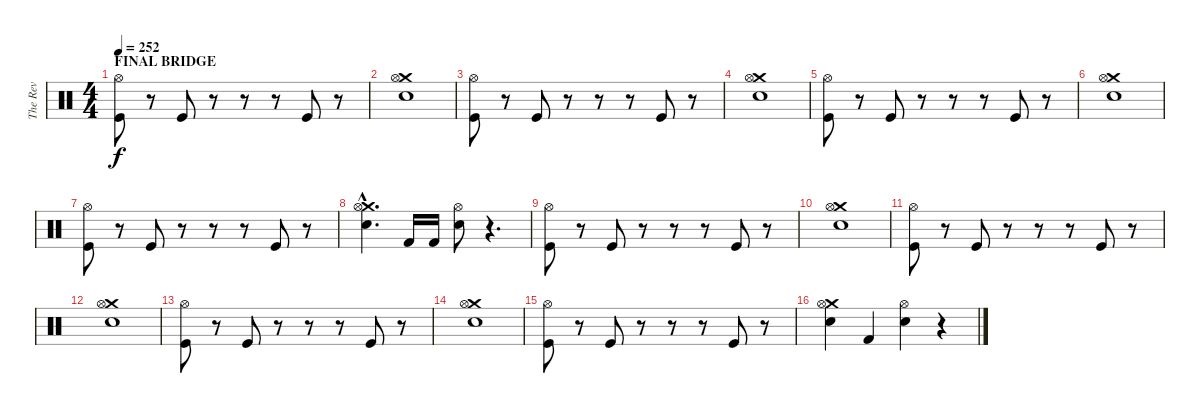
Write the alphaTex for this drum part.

\track ("The Rev" "The Rev") {instrument percussion}
\staff {score}
\articulation defaults
\ts (4 4)
\section ("" "FINAL BRIDGE")
\tempo 252
\clef neutral
\ks c
("Hi-Hat (open)" "Kick (hit)").8{dy f} r.8 "Kick (hit)".8 r.8 r.8 r.8 "Kick (hit)".8 r.8 |
("Crash medium (hit)" "Hi-Hat (open)" "Electric Snare (hit)").1 |
("Hi-Hat (open)" "Kick (hit)").8 r.8 "Kick (hit)".8 r.8 r.8 r.8 "Kick (hit)".8 r.8 |
("Crash medium (hit)" "Hi-Hat (open)" "Electric Snare (hit)").1 |
("Hi-Hat (open)" "Kick (hit)").8 r.8 "Kick (hit)".8 r.8 r.8 r.8 "Kick (hit)".8 r.8 |
("Crash medium (hit)" "Hi-Hat (open)" "Electric Snare (hit)").1 |
("Hi-Hat (open)" "Kick (hit)").8 r.8 "Kick (hit)".8 r.8 r.8 r.8 "Kick (hit)".8 r.8 |
("Crash medium (hit)"{hac} "Hi-Hat (open)"{hac} "Electric Snare (hit)"{hac}).4{d} "Kick (hit) 2".16 "Kick (hit) 2".16 ("Hi-Hat (open)" "Electric Snare (hit)").8 r.4{d} |
("Hi-Hat (open)" "Kick (hit)").8 r.8 "Kick (hit)".8 r.8 r.8 r.8 "Kick (hit)".8 r.8 |
("Crash medium (hit)" "Hi-Hat (open)" "Electric Snare (hit)").1 |
("Hi-Hat (open)" "Kick (hit)").8 r.8 "Kick (hit)".8 r.8 r.8 r.8 "Kick (hit)".8 r.8 |
("Crash medium (hit)" "Hi-Hat (open)" "Electric Snare (hit)").1 |
("Hi-Hat (open)" "Kick (hit)").8 r.8 "Kick (hit)".8 r.8 r.8 r.8 "Kick (hit)".8 r.8 |
("Crash medium (hit)" "Hi-Hat (open)" "Electric Snare (hit)").1 |
("Hi-Hat (open)" "Kick (hit)").8 r.8 "Kick (hit)".8 r.8 r.8 r.8 "Kick (hit)".8 r.8 |
("Crash medium (hit)" "Hi-Hat (open)" "Electric Snare (hit)").4 "Kick (hit) 2".4 ("Hi-Hat (open)" "Electric Snare (hit)").4 r.4
